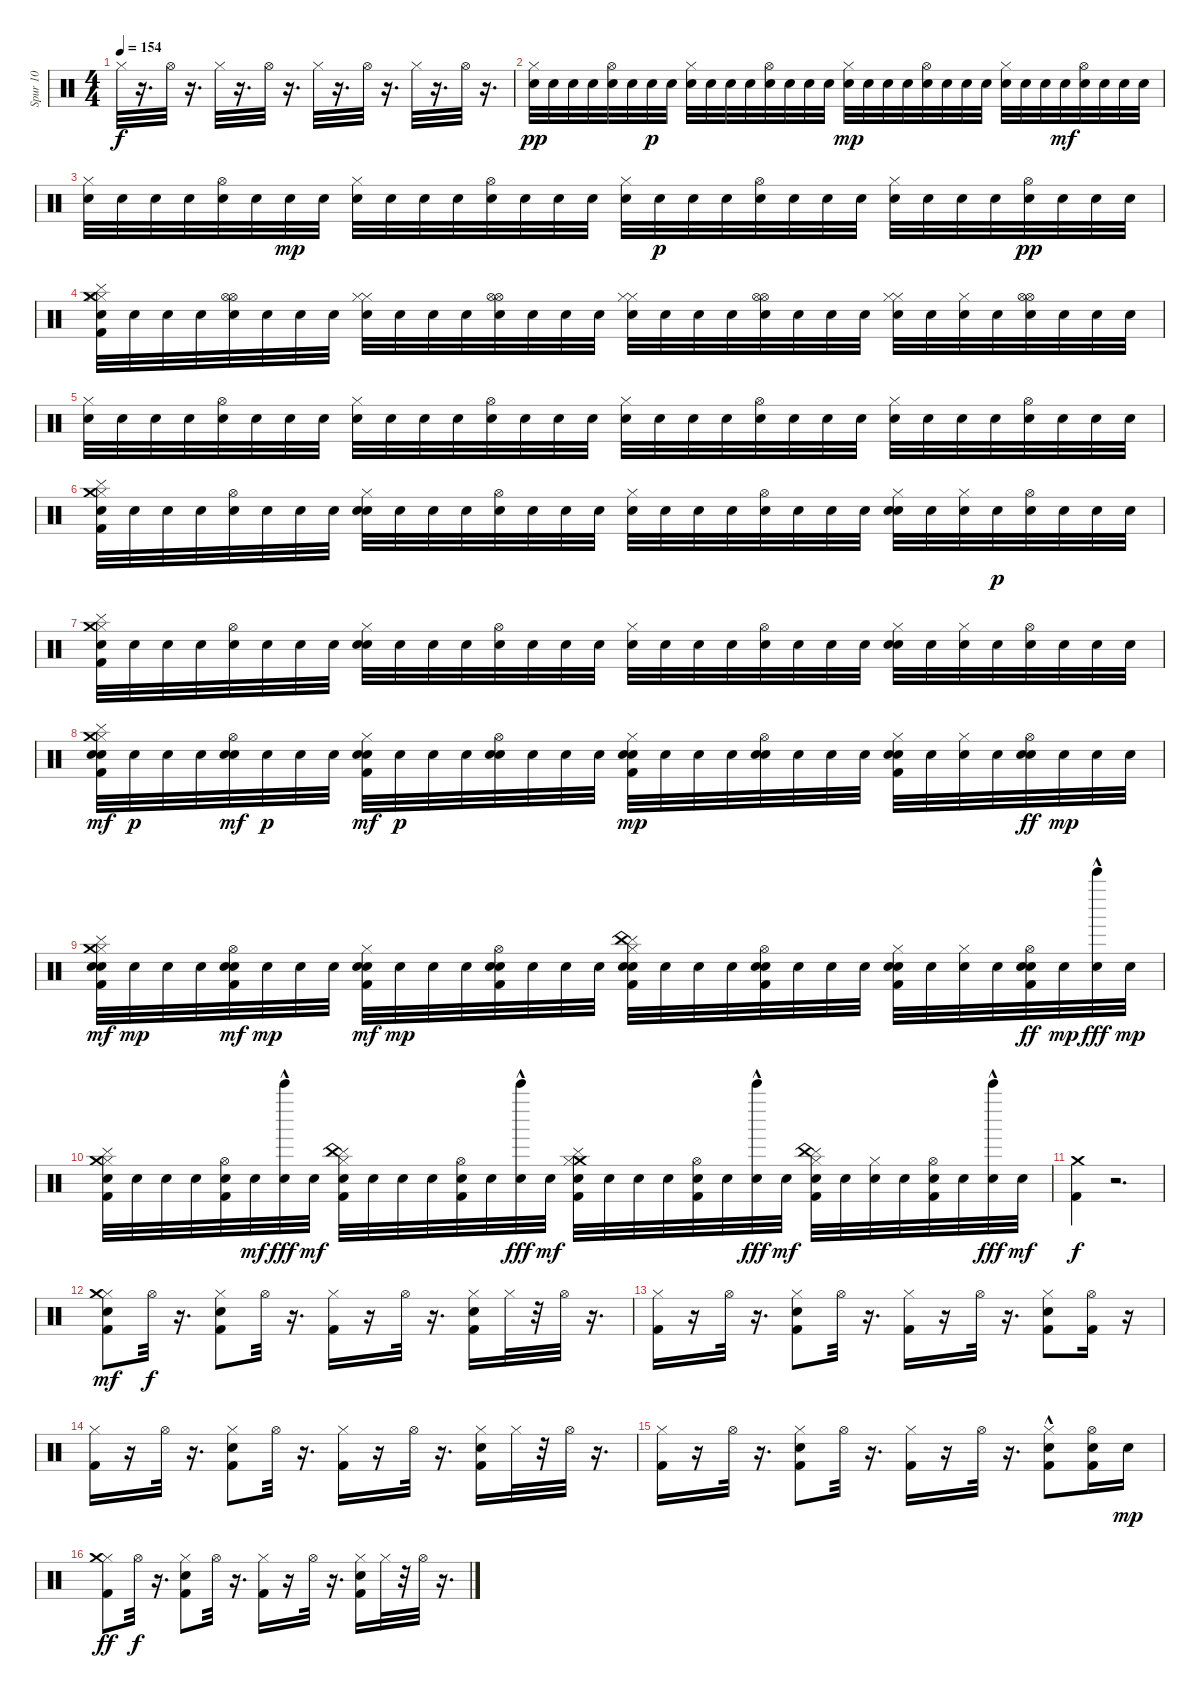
\track ("Spur 10" "Spur 10") {instrument percussion}
\staff {score}
\articulation defaults
\ts (4 4)
\tempo 154
\clef neutral
\ks c "Hi-Hat (closed)".32{dy f}
r.16{d} "Hi-Hat (open)".32 r.16{d} "Hi-Hat (closed)".32 r.16{d} "Hi-Hat (open)".32 r.16{d} "Hi-Hat (closed)".32 r.16{d} "Hi-Hat (open)".32 r.16{d} "Hi-Hat (closed)".32 r.16{d} "Hi-Hat (open)".32 r.16{d} |
("Electric Snare (hit)" "Hi-Hat (closed)").32{dy pp} "Electric Snare (hit)".32 "Electric Snare (hit)".32 "Electric Snare (hit)".32 ("Electric Snare (hit)" "Hi-Hat (open)").32 "Electric Snare (hit)".32 "Electric Snare (hit)".32{dy p} "Electric Snare (hit)".32 ("Electric Snare (hit)" "Hi-Hat (closed)").32 "Electric Snare (hit)".32 "Electric Snare (hit)".32 "Electric Snare (hit)".32 ("Electric Snare (hit)" "Hi-Hat (open)").32 "Electric Snare (hit)".32 "Electric Snare (hit)".32 "Electric Snare (hit)".32 ("Electric Snare (hit)" "Hi-Hat (closed)").32{dy mp} "Electric Snare (hit)".32 "Electric Snare (hit)".32 "Electric Snare (hit)".32 ("Electric Snare (hit)" "Hi-Hat (open)").32 "Electric Snare (hit)".32 "Electric Snare (hit)".32 "Electric Snare (hit)".32 ("Electric Snare (hit)" "Hi-Hat (closed)").32 "Electric Snare (hit)".32 "Electric Snare (hit)".32 "Electric Snare (hit)".32{dy mf} ("Electric Snare (hit)" "Hi-Hat (open)").32 "Electric Snare (hit)".32 "Electric Snare (hit)".32 "Electric Snare (hit)".32 |
("Electric Snare (hit)" "Hi-Hat (closed)").32 "Electric Snare (hit)".32 "Electric Snare (hit)".32 "Electric Snare (hit)".32 ("Electric Snare (hit)" "Hi-Hat (open)").32 "Electric Snare (hit)".32 "Electric Snare (hit)".32{dy mp} "Electric Snare (hit)".32 ("Electric Snare (hit)" "Hi-Hat (closed)").32 "Electric Snare (hit)".32 "Electric Snare (hit)".32 "Electric Snare (hit)".32 ("Electric Snare (hit)" "Hi-Hat (open)").32 "Electric Snare (hit)".32 "Electric Snare (hit)".32 "Electric Snare (hit)".32 ("Electric Snare (hit)" "Hi-Hat (closed)").32 "Electric Snare (hit)".32{dy p} "Electric Snare (hit)".32 "Electric Snare (hit)".32 ("Electric Snare (hit)" "Hi-Hat (open)").32 "Electric Snare (hit)".32 "Electric Snare (hit)".32 "Electric Snare (hit)".32 ("Electric Snare (hit)" "Hi-Hat (closed)").32 "Electric Snare (hit)".32 "Electric Snare (hit)".32 "Electric Snare (hit)".32 ("Electric Snare (hit)" "Hi-Hat (open)").32{dy pp} "Electric Snare (hit)".32 "Electric Snare (hit)".32 "Electric Snare (hit)".32 |
("Kick (hit) 2" "Cymbal (hit)" "Electric Snare (hit)" "Hi-Hat (closed)" "Hi-Hat (closed)" "Crash medium (hit)").32 "Electric Snare (hit)".32 "Electric Snare (hit)".32 "Electric Snare (hit)".32 ("Electric Snare (hit)" "Hi-Hat (open)" "Hi-Hat (open)").32 "Electric Snare (hit)".32 "Electric Snare (hit)".32 "Electric Snare (hit)".32 ("Electric Snare (hit)" "Hi-Hat (closed)" "Hi-Hat (closed)").32 "Electric Snare (hit)".32 "Electric Snare (hit)".32 "Electric Snare (hit)".32 ("Electric Snare (hit)" "Hi-Hat (open)" "Hi-Hat (open)").32 "Electric Snare (hit)".32 "Electric Snare (hit)".32 "Electric Snare (hit)".32 ("Electric Snare (hit)" "Hi-Hat (closed)" "Hi-Hat (closed)").32 "Electric Snare (hit)".32 "Electric Snare (hit)".32 "Electric Snare (hit)".32 ("Electric Snare (hit)" "Hi-Hat (open)" "Hi-Hat (open)").32 "Electric Snare (hit)".32 "Electric Snare (hit)".32 "Electric Snare (hit)".32 ("Electric Snare (hit)" "Hi-Hat (closed)" "Hi-Hat (closed)").32 "Electric Snare (hit)".32 ("Electric Snare (hit)" "Hi-Hat (closed)").32 "Electric Snare (hit)".32 ("Electric Snare (hit)" "Hi-Hat (open)" "Hi-Hat (open)").32 "Electric Snare (hit)".32 "Electric Snare (hit)".32 "Electric Snare (hit)".32 |
("Electric Snare (hit)" "Hi-Hat (closed)").32 "Electric Snare (hit)".32 "Electric Snare (hit)".32 "Electric Snare (hit)".32 ("Electric Snare (hit)" "Hi-Hat (open)").32 "Electric Snare (hit)".32 "Electric Snare (hit)".32 "Electric Snare (hit)".32 ("Electric Snare (hit)" "Hi-Hat (closed)").32 "Electric Snare (hit)".32 "Electric Snare (hit)".32 "Electric Snare (hit)".32 ("Electric Snare (hit)" "Hi-Hat (open)").32 "Electric Snare (hit)".32 "Electric Snare (hit)".32 "Electric Snare (hit)".32 ("Electric Snare (hit)" "Hi-Hat (closed)").32 "Electric Snare (hit)".32 "Electric Snare (hit)".32 "Electric Snare (hit)".32 ("Electric Snare (hit)" "Hi-Hat (open)").32 "Electric Snare (hit)".32 "Electric Snare (hit)".32 "Electric Snare (hit)".32 ("Electric Snare (hit)" "Hi-Hat (closed)").32 "Electric Snare (hit)".32 "Electric Snare (hit)".32 "Electric Snare (hit)".32 ("Electric Snare (hit)" "Hi-Hat (open)").32 "Electric Snare (hit)".32 "Electric Snare (hit)".32 "Electric Snare (hit)".32 |
("Kick (hit) 2" "Cymbal (hit)" "Electric Snare (hit)" "Hi-Hat (closed)" "Crash medium (hit)").32 "Electric Snare (hit)".32 "Electric Snare (hit)".32 "Electric Snare (hit)".32 ("Electric Snare (hit)" "Hi-Hat (open)").32 "Electric Snare (hit)".32 "Electric Snare (hit)".32 "Electric Snare (hit)".32 ("Electric Snare (hit)" "Snare (hit) 2" "Hi-Hat (closed)").32 "Electric Snare (hit)".32 "Electric Snare (hit)".32 "Electric Snare (hit)".32 ("Electric Snare (hit)" "Hi-Hat (open)").32 "Electric Snare (hit)".32 "Electric Snare (hit)".32 "Electric Snare (hit)".32 ("Electric Snare (hit)" "Hi-Hat (closed)").32 "Electric Snare (hit)".32 "Electric Snare (hit)".32 "Electric Snare (hit)".32 ("Electric Snare (hit)" "Hi-Hat (open)").32 "Electric Snare (hit)".32 "Electric Snare (hit)".32 "Electric Snare (hit)".32 ("Electric Snare (hit)" "Snare (hit) 2" "Hi-Hat (closed)").32 "Electric Snare (hit)".32 ("Electric Snare (hit)" "Hi-Hat (closed)").32 "Electric Snare (hit)".32{dy p} ("Electric Snare (hit)" "Hi-Hat (open)").32 "Electric Snare (hit)".32 "Electric Snare (hit)".32 "Electric Snare (hit)".32 |
("Kick (hit) 2" "Cymbal (hit)" "Electric Snare (hit)" "Hi-Hat (closed)" "Crash medium (hit)").32 "Electric Snare (hit)".32 "Electric Snare (hit)".32 "Electric Snare (hit)".32 ("Electric Snare (hit)" "Hi-Hat (open)").32 "Electric Snare (hit)".32 "Electric Snare (hit)".32 "Electric Snare (hit)".32 ("Electric Snare (hit)" "Snare (hit) 2" "Hi-Hat (closed)").32 "Electric Snare (hit)".32 "Electric Snare (hit)".32 "Electric Snare (hit)".32 ("Electric Snare (hit)" "Hi-Hat (open)").32 "Electric Snare (hit)".32 "Electric Snare (hit)".32 "Electric Snare (hit)".32 ("Electric Snare (hit)" "Hi-Hat (closed)").32 "Electric Snare (hit)".32 "Electric Snare (hit)".32 "Electric Snare (hit)".32 ("Electric Snare (hit)" "Hi-Hat (open)").32 "Electric Snare (hit)".32 "Electric Snare (hit)".32 "Electric Snare (hit)".32 ("Electric Snare (hit)" "Snare (hit) 2" "Hi-Hat (closed)").32 "Electric Snare (hit)".32 ("Electric Snare (hit)" "Hi-Hat (closed)").32 "Electric Snare (hit)".32 ("Electric Snare (hit)" "Hi-Hat (open)").32 "Electric Snare (hit)".32 "Electric Snare (hit)".32 "Electric Snare (hit)".32 |
("Kick (hit) 2" "Cymbal (hit)" "Electric Snare (hit)" "Snare (hit) 2" "Hi-Hat (closed)" "Crash medium (hit)").32{dy mf} "Electric Snare (hit)".32{dy p} "Electric Snare (hit)".32 "Electric Snare (hit)".32 ("Electric Snare (hit)" "Snare (hit) 2" "Hi-Hat (open)").32{dy mf} "Electric Snare (hit)".32{dy p} "Electric Snare (hit)".32 "Electric Snare (hit)".32 ("Kick (hit) 2" "Electric Snare (hit)" "Snare (hit) 2" "Hi-Hat (closed)").32{dy mf} "Electric Snare (hit)".32{dy p} "Electric Snare (hit)".32 "Electric Snare (hit)".32 ("Electric Snare (hit)" "Snare (hit) 2" "Hi-Hat (open)").32 "Electric Snare (hit)".32 "Electric Snare (hit)".32 "Electric Snare (hit)".32 ("Kick (hit) 2" "Electric Snare (hit)" "Snare (hit) 2" "Hi-Hat (closed)").32{dy mp} "Electric Snare (hit)".32 "Electric Snare (hit)".32 "Electric Snare (hit)".32 ("Electric Snare (hit)" "Snare (hit) 2" "Hi-Hat (open)").32 "Electric Snare (hit)".32 "Electric Snare (hit)".32 "Electric Snare (hit)".32 ("Kick (hit) 2" "Electric Snare (hit)" "Snare (hit) 2" "Hi-Hat (closed)").32 "Electric Snare (hit)".32 ("Electric Snare (hit)" "Hi-Hat (closed)").32 "Electric Snare (hit)".32 ("Electric Snare (hit)" "Snare (hit) 2" "Hi-Hat (open)").32{dy ff} "Electric Snare (hit)".32{dy mp} "Electric Snare (hit)".32 "Electric Snare (hit)".32 |
("Kick (hit) 2" "Cymbal (hit)" "Electric Snare (hit)" "Snare (hit) 2" "Hi-Hat (closed)" "Crash medium (hit)").32{dy mf} "Electric Snare (hit)".32{dy mp} "Electric Snare (hit)".32 "Electric Snare (hit)".32 ("Kick (hit) 2" "Electric Snare (hit)" "Snare (hit) 2" "Hi-Hat (open)").32{dy mf} "Electric Snare (hit)".32{dy mp} "Electric Snare (hit)".32 "Electric Snare (hit)".32 ("Kick (hit) 2" "Electric Snare (hit)" "Snare (hit) 2" "Hi-Hat (closed)").32{dy mf} "Electric Snare (hit)".32{dy mp} "Electric Snare (hit)".32 "Electric Snare (hit)".32 ("Kick (hit) 2" "Electric Snare (hit)" "Snare (hit) 2" "Hi-Hat (open)").32 "Electric Snare (hit)".32 "Electric Snare (hit)".32 "Electric Snare (hit)".32 ("Cymbal (hit)" "Kick (hit) 2" "Electric Snare (hit)" "Snare (hit) 2" "China (hit)" "Hi-Hat (closed)").32 "Electric Snare (hit)".32 "Electric Snare (hit)".32 "Electric Snare (hit)".32 ("Kick (hit) 2" "Electric Snare (hit)" "Snare (hit) 2" "Hi-Hat (open)").32 "Electric Snare (hit)".32 "Electric Snare (hit)".32 "Electric Snare (hit)".32 ("Kick (hit) 2" "Electric Snare (hit)" "Snare (hit) 2" "Hi-Hat (closed)").32 "Electric Snare (hit)".32 ("Electric Snare (hit)" "Hi-Hat (closed)").32 "Electric Snare (hit)".32 ("Kick (hit) 2" "Electric Snare (hit)" "Snare (hit) 2" "Hi-Hat (open)").32{dy ff} "Electric Snare (hit)".32{dy mp} ("Electric Snare (hit)" "Bell Tree (hit)"{hac}).32{dy fff} "Electric Snare (hit)".32{dy mp} |
("Kick (hit) 2" "Cymbal (hit)" "Electric Snare (hit)" "Hi-Hat (closed)" "Crash medium (hit)").32 "Electric Snare (hit)".32 "Electric Snare (hit)".32 "Electric Snare (hit)".32 ("Kick (hit) 2" "Electric Snare (hit)" "Hi-Hat (open)").32 "Electric Snare (hit)".32{dy mf} ("Electric Snare (hit)" "Bell Tree (hit)"{hac}).32{dy fff} "Electric Snare (hit)".32{dy mf} ("Cymbal (hit)" "Kick (hit) 2" "Electric Snare (hit)" "China (hit)" "Hi-Hat (closed)").32 "Electric Snare (hit)".32 "Electric Snare (hit)".32 "Electric Snare (hit)".32 ("Kick (hit) 2" "Electric Snare (hit)" "Hi-Hat (open)").32 "Electric Snare (hit)".32 ("Electric Snare (hit)" "Bell Tree (hit)"{hac}).32{dy fff} "Electric Snare (hit)".32{dy mf} ("Cymbal (hit)" "Kick (hit) 2" "Electric Snare (hit)" "Crash medium (hit)" "Hi-Hat (closed)").32 "Electric Snare (hit)".32 "Electric Snare (hit)".32 "Electric Snare (hit)".32 ("Kick (hit) 2" "Electric Snare (hit)" "Hi-Hat (open)").32 "Electric Snare (hit)".32 ("Electric Snare (hit)" "Bell Tree (hit)"{hac}).32{dy fff} "Electric Snare (hit)".32{dy mf} ("Cymbal (hit)" "Kick (hit) 2" "Electric Snare (hit)" "China (hit)" "Hi-Hat (closed)").32 "Electric Snare (hit)".32 ("Electric Snare (hit)" "Hi-Hat (closed)").32 "Electric Snare (hit)".32 ("Kick (hit) 2" "Electric Snare (hit)" "Hi-Hat (open)").32 "Electric Snare (hit)".32 ("Electric Snare (hit)" "Bell Tree (hit)"{hac}).32{dy fff} "Electric Snare (hit)".32{dy mf} |
("Kick (hit) 2" "Crash medium (hit)").4{dy f} r.2{d} |
("Kick (hit) 2" "Snare (hit) 2" "Hi-Hat (closed)" "Crash medium (hit)").8{dy mf} "Hi-Hat (open)".32{dy f} r.16{d} ("Kick (hit) 2" "Snare (hit) 2" "Hi-Hat (closed)").8 "Hi-Hat (open)".32 r.16{d} ("Kick (hit) 2" "Hi-Hat (closed)").16 r.16 "Hi-Hat (open)".32 r.16{d} ("Kick (hit) 2" "Snare (hit) 2" "Hi-Hat (closed)").16 "Hi-Hat (closed)".32 r.32 "Hi-Hat (open)".32 r.16{d} |
("Kick (hit) 2" "Hi-Hat (closed)").16 r.16 "Hi-Hat (open)".32 r.16{d} ("Kick (hit) 2" "Snare (hit) 2" "Hi-Hat (closed)").8 "Hi-Hat (open)".32 r.16{d} ("Kick (hit) 2" "Hi-Hat (closed)").16 r.16 "Hi-Hat (open)".32 r.16{d} ("Kick (hit) 2" "Snare (hit) 2" "Hi-Hat (closed)").8 ("Kick (hit) 2" "Hi-Hat (open)").16 r.16 |
("Kick (hit) 2" "Hi-Hat (closed)").16 r.16 "Hi-Hat (open)".32 r.16{d} ("Kick (hit) 2" "Snare (hit) 2" "Hi-Hat (closed)").8 "Hi-Hat (open)".32 r.16{d} ("Kick (hit) 2" "Hi-Hat (closed)").16 r.16 "Hi-Hat (open)".32 r.16{d} ("Kick (hit) 2" "Snare (hit) 2" "Hi-Hat (closed)").16 "Hi-Hat (closed)".32 r.32 "Hi-Hat (open)".32 r.16{d} |
("Kick (hit) 2" "Hi-Hat (closed)").16 r.16 "Hi-Hat (open)".32 r.16{d} ("Kick (hit) 2" "Snare (hit) 2" "Hi-Hat (closed)").8 "Hi-Hat (open)".32 r.16{d} ("Kick (hit) 2" "Hi-Hat (closed)").16 r.16 "Hi-Hat (open)".32 r.16{d} ("Kick (hit) 2" "Snare (hit) 2"{hac} "Hi-Hat (closed)").8 ("Electric Snare (hit)" "Kick (hit) 2" "Hi-Hat (open)").16 "Snare (hit) 2".16{dy mp} |
("Kick (hit) 2" "Hi-Hat (closed)" "Crash medium (hit)").8{dy ff} "Hi-Hat (open)".32{dy f} r.16{d} ("Kick (hit) 2" "Snare (hit) 2" "Hi-Hat (closed)").8 "Hi-Hat (open)".32 r.16{d} ("Kick (hit) 2" "Hi-Hat (closed)").16 r.16 "Hi-Hat (open)".32 r.16{d} ("Kick (hit) 2" "Snare (hit) 2" "Hi-Hat (closed)").16 "Hi-Hat (closed)".32 r.32 "Hi-Hat (open)".32 r.16{d}
